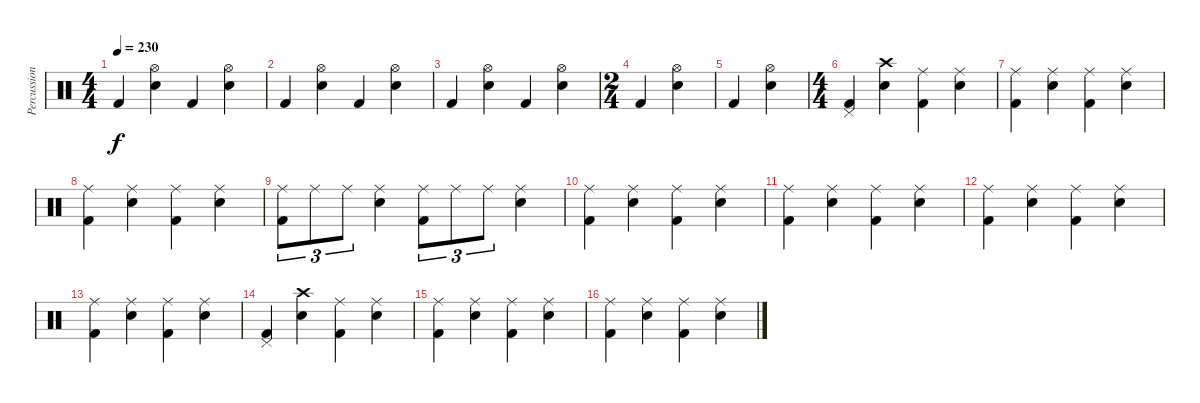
\track ("Percussion" "Percussion") {instrument percussion}
\staff {score}
\articulation defaults
\ts (4 4)
\tempo 230
\clef neutral
\ks c "Kick (hit) 2".4{dy f}
("Hi-Hat (open)" "Electric Snare (hit)").4 "Kick (hit) 2".4 ("Hi-Hat (open)" "Electric Snare (hit)").4 |
"Kick (hit) 2".4 ("Hi-Hat (open)" "Electric Snare (hit)").4 "Kick (hit) 2".4 ("Hi-Hat (open)" "Electric Snare (hit)").4 |
"Kick (hit) 2".4 ("Hi-Hat (open)" "Electric Snare (hit)").4 "Kick (hit) 2".4 ("Hi-Hat (open)" "Electric Snare (hit)").4 |
\ts (2 4)
"Kick (hit) 2".4 ("Hi-Hat (open)" "Electric Snare (hit)").4 |
"Kick (hit) 2".4 ("Hi-Hat (open)" "Electric Snare (hit)").4 |
\ts (4 4)
("Pedal Hi-Hat (hit)" "Kick (hit) 2").4 ("Crash high (hit)" "Electric Snare (hit)").4 ("Ride (middle)" "Kick (hit) 2").4 ("Ride (middle)" "Electric Snare (hit)").4 |
("Ride (middle)" "Kick (hit) 2").4 ("Ride (middle)" "Electric Snare (hit)").4 ("Ride (middle)" "Kick (hit) 2").4 ("Ride (middle)" "Electric Snare (hit)").4 |
("Ride (middle)" "Kick (hit) 2").4 ("Ride (middle)" "Electric Snare (hit)").4 ("Ride (middle)" "Kick (hit) 2").4 ("Ride (middle)" "Electric Snare (hit)").4 |
("Ride (middle)" "Kick (hit) 2").8{tu (3 2)} "Ride (middle)".8{tu (3 2)} "Ride (middle)".8{tu (3 2)} ("Ride (middle)" "Electric Snare (hit)").4 ("Ride (middle)" "Kick (hit) 2").8{tu (3 2)} "Ride (middle)".8{tu (3 2)} "Ride (middle)".8{tu (3 2)} ("Ride (middle)" "Electric Snare (hit)").4 |
("Ride (middle)" "Kick (hit) 2").4 ("Ride (middle)" "Electric Snare (hit)").4 ("Ride (middle)" "Kick (hit) 2").4 ("Ride (middle)" "Electric Snare (hit)").4 |
("Ride (middle)" "Kick (hit) 2").4 ("Ride (middle)" "Electric Snare (hit)").4 ("Ride (middle)" "Kick (hit) 2").4 ("Ride (middle)" "Electric Snare (hit)").4 |
("Ride (middle)" "Kick (hit) 2").4 ("Ride (middle)" "Electric Snare (hit)").4 ("Ride (middle)" "Kick (hit) 2").4 ("Ride (middle)" "Electric Snare (hit)").4 |
("Ride (middle)" "Kick (hit) 2").4 ("Ride (middle)" "Electric Snare (hit)").4 ("Ride (middle)" "Kick (hit) 2").4 ("Ride (middle)" "Electric Snare (hit)").4 |
("Pedal Hi-Hat (hit)" "Kick (hit) 2").4 ("Crash high (hit)" "Electric Snare (hit)").4 ("Ride (middle)" "Kick (hit) 2").4 ("Ride (middle)" "Electric Snare (hit)").4 |
("Ride (middle)" "Kick (hit) 2").4 ("Ride (middle)" "Electric Snare (hit)").4 ("Ride (middle)" "Kick (hit) 2").4 ("Ride (middle)" "Electric Snare (hit)").4 |
("Ride (middle)" "Kick (hit) 2").4 ("Ride (middle)" "Electric Snare (hit)").4 ("Ride (middle)" "Kick (hit) 2").4 ("Ride (middle)" "Electric Snare (hit)").4
